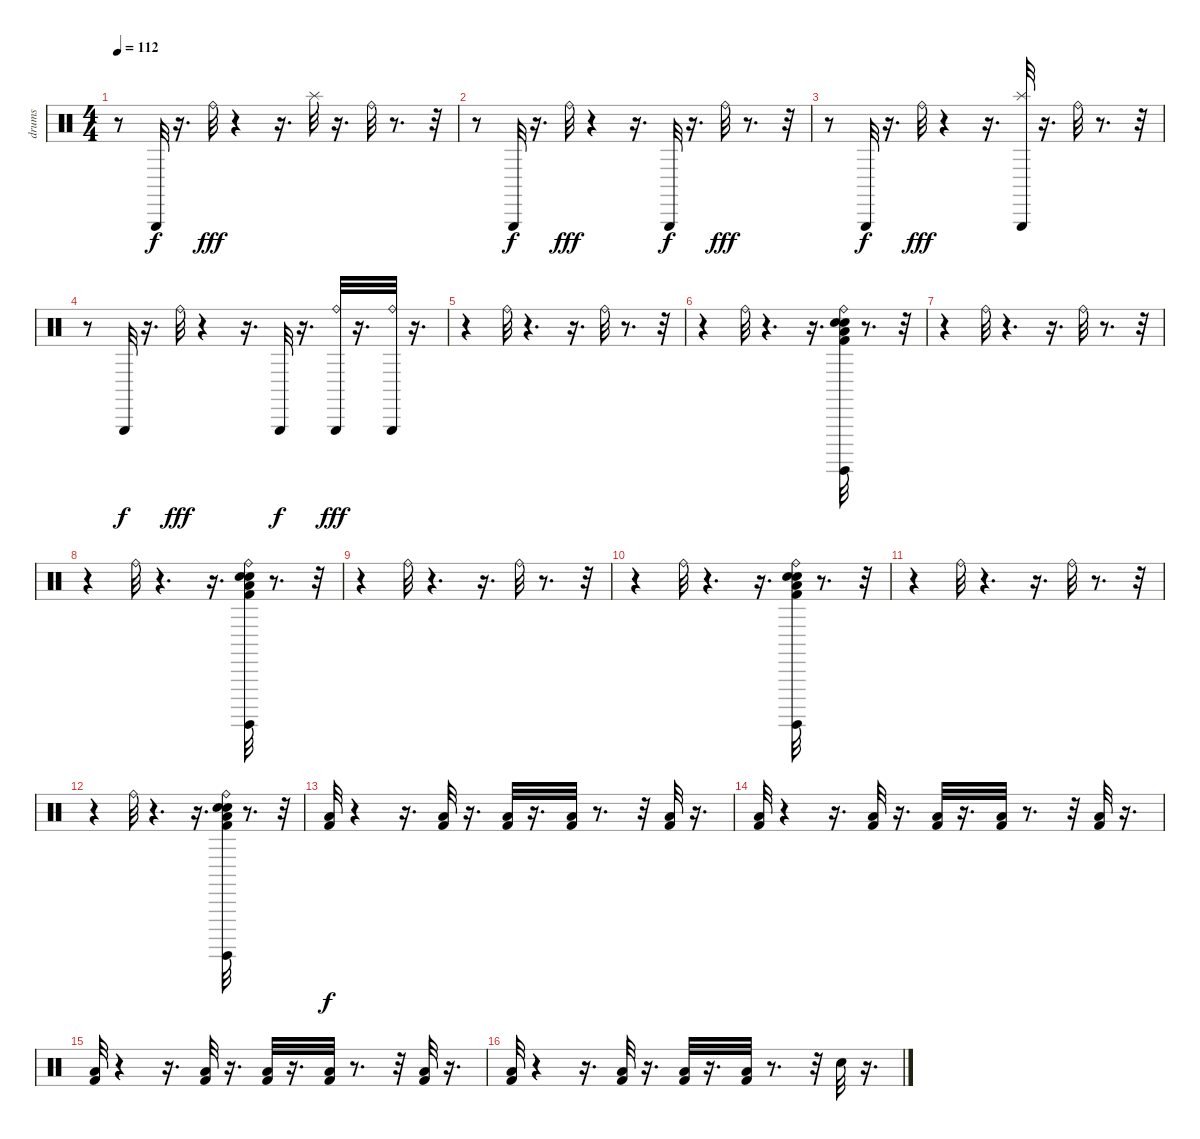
\track ("drums" "drums") {instrument percussion}
\staff {score}
\articulation defaults
\ts (4 4)
\tempo 112
\clef neutral
\ks c
r.8{dy fff} "Triangle (hit)".32{dy f} r.16{d} "Ride (bell)".32{dy fff} r.4 r.16{d} "Splash (hit)".32 r.16{d} "Ride (bell)".32 r.8{d} r.32 |
r.8 "Triangle (hit)".32{dy f} r.16{d} "Ride (bell)".32{dy fff} r.4 r.16{d} "Triangle (hit)".32{dy f} r.16{d} "Ride (bell)".32{dy fff} r.8{d} r.32 |
r.8 "Triangle (hit)".32{dy f} r.16{d} "Ride (bell)".32{dy fff} r.4 r.16{d} ("Triangle (hit)" "Splash (hit)").32 r.16{d} "Ride (bell)".32 r.8{d} r.32 |
r.8 "Triangle (hit)".32{dy f} r.16{d} "Ride (bell)".32{dy fff} r.4 r.16{d} "Triangle (hit)".32{dy f} r.16{d} ("Ride (bell)" "Triangle (hit)").32{dy fff} r.16{d} ("Ride (bell)" "Triangle (hit)").32 r.16{d} |
r.4 "Ride (bell)".32 r.4{d} r.16{d} "Ride (bell)".32 r.8{d} r.32 |
r.4 "Ride (bell)".32 r.4{d} r.16{d} ("Kick (hit) 2" "Low Floor Tom (hit)" "Surdo (hit)" "Ride (bell)" "Electric Snare (hit)" "Snare (hit) 2").32 r.8{d} r.32 |
r.4 "Ride (bell)".32 r.4{d} r.16{d} "Ride (bell)".32 r.8{d} r.32 |
r.4 "Ride (bell)".32 r.4{d} r.16{d} ("Kick (hit) 2" "Low Floor Tom (hit)" "Ride (bell)" "Surdo (hit)" "Electric Snare (hit)" "Snare (hit) 2").32 r.8{d} r.32 |
r.4 "Ride (bell)".32 r.4{d} r.16{d} "Ride (bell)".32 r.8{d} r.32 |
r.4 "Ride (bell)".32 r.4{d} r.16{d} ("Kick (hit) 2" "Low Floor Tom (hit)" "Ride (bell)" "Snare (hit) 2" "Electric Snare (hit)" "Surdo (hit)").32 r.8{d} r.32 |
r.4 "Ride (bell)".32 r.4{d} r.16{d} "Ride (bell)".32 r.8{d} r.32 |
r.4 "Ride (bell)".32 r.4{d} r.16{d} ("Low Floor Tom (hit)" "Kick (hit) 2" "Ride (bell)" "Snare (hit) 2" "Electric Snare (hit)" "Surdo (hit)").32 r.8{d} r.32 |
("Low Floor Tom (hit)" "Kick (hit) 2").32{dy f} r.4 r.16{d} ("Kick (hit) 2" "Low Floor Tom (hit)").32 r.16{d} ("Kick (hit) 2" "Low Floor Tom (hit)").32 r.16{d} ("Low Floor Tom (hit)" "Kick (hit) 2").32 r.8{d} r.32 ("Low Floor Tom (hit)" "Kick (hit) 2").32 r.16{d} |
("Low Floor Tom (hit)" "Kick (hit) 2").32 r.4 r.16{d} ("Kick (hit) 2" "Low Floor Tom (hit)").32 r.16{d} ("Kick (hit) 2" "Low Floor Tom (hit)").32 r.16{d} ("Low Floor Tom (hit)" "Kick (hit) 2").32 r.8{d} r.32 ("Low Floor Tom (hit)" "Kick (hit) 2").32 r.16{d} |
("Low Floor Tom (hit)" "Kick (hit) 2").32 r.4 r.16{d} ("Kick (hit) 2" "Low Floor Tom (hit)").32 r.16{d} ("Kick (hit) 2" "Low Floor Tom (hit)").32 r.16{d} ("Low Floor Tom (hit)" "Kick (hit) 2").32 r.8{d} r.32 ("Low Floor Tom (hit)" "Kick (hit) 2").32 r.16{d} |
("Low Floor Tom (hit)" "Kick (hit) 2").32 r.4 r.16{d} ("Kick (hit) 2" "Low Floor Tom (hit)").32 r.16{d} ("Kick (hit) 2" "Low Floor Tom (hit)").32 r.16{d} ("Low Floor Tom (hit)" "Kick (hit) 2").32 r.8{d} r.32 "Snare (hit) 2".32 r.16{d}
